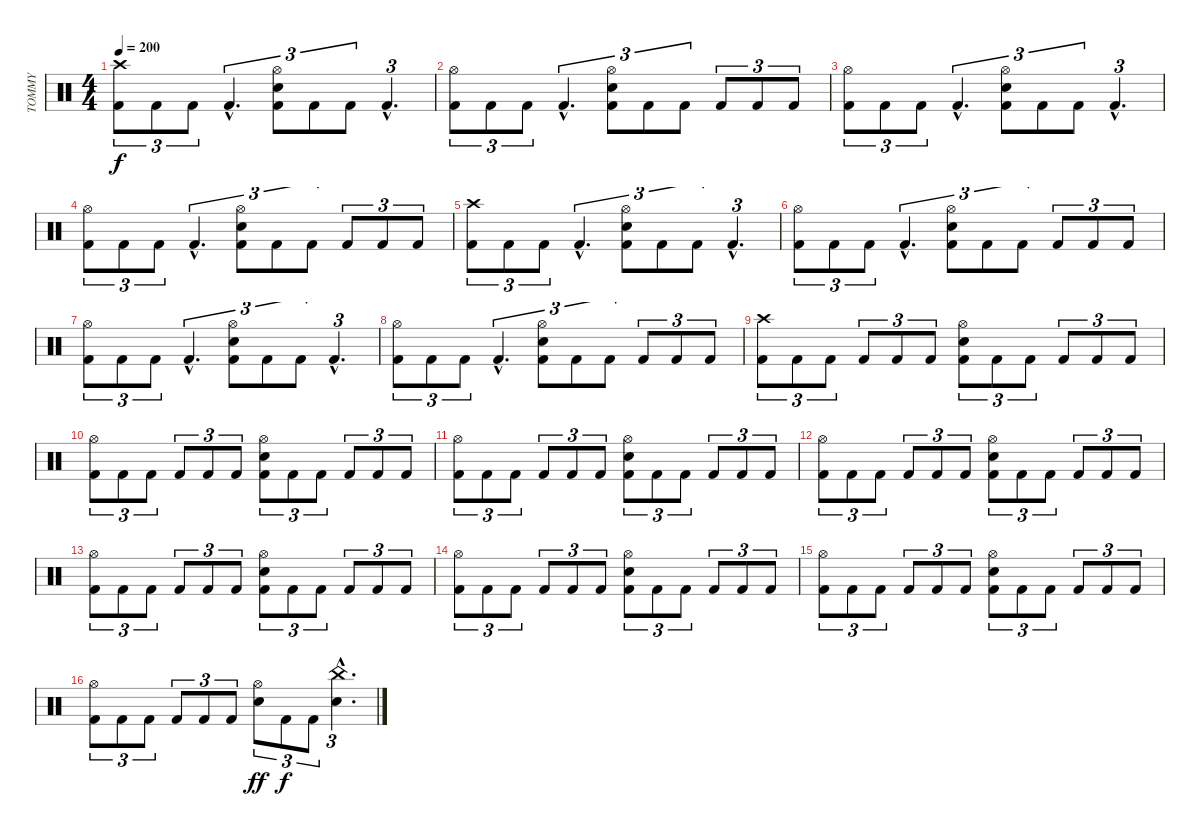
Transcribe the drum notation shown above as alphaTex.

\track ("TOMMY" "TOMMY") {instrument percussion}
\staff {score}
\articulation defaults
\ts (4 4)
\tempo 200
\clef neutral
\ks c
("Kick (hit) 2" "Crash high (hit)").8{tu (3 2) dy f} "Kick (hit) 2".8{tu (3 2)} "Kick (hit) 2".8{tu (3 2)} "Kick (hit) 2"{hac}.4{d tu (3 2)} ("Snare (hit) 2" "Kick (hit) 2" "Hi-Hat (open)").8{tu (3 2)} "Kick (hit) 2".8{tu (3 2)} "Kick (hit) 2".8{tu (3 2)} "Kick (hit) 2"{hac}.4{d tu (3 2)} |
("Kick (hit) 2" "Hi-Hat (open)").8{tu (3 2)} "Kick (hit) 2".8{tu (3 2)} "Kick (hit) 2".8{tu (3 2)} "Kick (hit) 2"{hac}.4{d tu (3 2)} ("Snare (hit) 2" "Kick (hit) 2" "Hi-Hat (open)").8{tu (3 2)} "Kick (hit) 2".8{tu (3 2)} "Kick (hit) 2".8{tu (3 2)} "Kick (hit) 2".8{tu (3 2)} "Kick (hit) 2".8{tu (3 2)} "Kick (hit) 2".8{tu (3 2)} |
("Kick (hit) 2" "Hi-Hat (open)").8{tu (3 2)} "Kick (hit) 2".8{tu (3 2)} "Kick (hit) 2".8{tu (3 2)} "Kick (hit) 2"{hac}.4{d tu (3 2)} ("Snare (hit) 2" "Kick (hit) 2" "Hi-Hat (open)").8{tu (3 2)} "Kick (hit) 2".8{tu (3 2)} "Kick (hit) 2".8{tu (3 2)} "Kick (hit) 2"{hac}.4{d tu (3 2)} |
("Kick (hit) 2" "Hi-Hat (open)").8{tu (3 2)} "Kick (hit) 2".8{tu (3 2)} "Kick (hit) 2".8{tu (3 2)} "Kick (hit) 2"{hac}.4{d tu (3 2)} ("Snare (hit) 2" "Kick (hit) 2" "Hi-Hat (open)").8{tu (3 2)} "Kick (hit) 2".8{tu (3 2)} "Kick (hit) 2".8{tu (3 2)} "Kick (hit) 2".8{tu (3 2)} "Kick (hit) 2".8{tu (3 2)} "Kick (hit) 2".8{tu (3 2)} |
("Kick (hit) 2" "Crash high (hit)").8{tu (3 2)} "Kick (hit) 2".8{tu (3 2)} "Kick (hit) 2".8{tu (3 2)} "Kick (hit) 2"{hac}.4{d tu (3 2)} ("Snare (hit) 2" "Kick (hit) 2" "Hi-Hat (open)").8{tu (3 2)} "Kick (hit) 2".8{tu (3 2)} "Kick (hit) 2".8{tu (3 2)} "Kick (hit) 2"{hac}.4{d tu (3 2)} |
("Kick (hit) 2" "Hi-Hat (open)").8{tu (3 2)} "Kick (hit) 2".8{tu (3 2)} "Kick (hit) 2".8{tu (3 2)} "Kick (hit) 2"{hac}.4{d tu (3 2)} ("Snare (hit) 2" "Kick (hit) 2" "Hi-Hat (open)").8{tu (3 2)} "Kick (hit) 2".8{tu (3 2)} "Kick (hit) 2".8{tu (3 2)} "Kick (hit) 2".8{tu (3 2)} "Kick (hit) 2".8{tu (3 2)} "Kick (hit) 2".8{tu (3 2)} |
("Kick (hit) 2" "Hi-Hat (open)").8{tu (3 2)} "Kick (hit) 2".8{tu (3 2)} "Kick (hit) 2".8{tu (3 2)} "Kick (hit) 2"{hac}.4{d tu (3 2)} ("Snare (hit) 2" "Kick (hit) 2" "Hi-Hat (open)").8{tu (3 2)} "Kick (hit) 2".8{tu (3 2)} "Kick (hit) 2".8{tu (3 2)} "Kick (hit) 2"{hac}.4{d tu (3 2)} |
("Kick (hit) 2" "Hi-Hat (open)").8{tu (3 2)} "Kick (hit) 2".8{tu (3 2)} "Kick (hit) 2".8{tu (3 2)} "Kick (hit) 2"{hac}.4{d tu (3 2)} ("Snare (hit) 2" "Kick (hit) 2" "Hi-Hat (open)").8{tu (3 2)} "Kick (hit) 2".8{tu (3 2)} "Kick (hit) 2".8{tu (3 2)} "Kick (hit) 2".8{tu (3 2)} "Kick (hit) 2".8{tu (3 2)} "Kick (hit) 2".8{tu (3 2)} |
("Kick (hit) 2" "Crash high (hit)").8{tu (3 2)} "Kick (hit) 2".8{tu (3 2)} "Kick (hit) 2".8{tu (3 2)} "Kick (hit) 2".8{tu (3 2)} "Kick (hit) 2".8{tu (3 2)} "Kick (hit) 2".8{tu (3 2)} ("Snare (hit) 2" "Kick (hit) 2" "Hi-Hat (open)").8{tu (3 2)} "Kick (hit) 2".8{tu (3 2)} "Kick (hit) 2".8{tu (3 2)} "Kick (hit) 2".8{tu (3 2)} "Kick (hit) 2".8{tu (3 2)} "Kick (hit) 2".8{tu (3 2)} |
("Kick (hit) 2" "Hi-Hat (open)").8{tu (3 2)} "Kick (hit) 2".8{tu (3 2)} "Kick (hit) 2".8{tu (3 2)} "Kick (hit) 2".8{tu (3 2)} "Kick (hit) 2".8{tu (3 2)} "Kick (hit) 2".8{tu (3 2)} ("Snare (hit) 2" "Kick (hit) 2" "Hi-Hat (open)").8{tu (3 2)} "Kick (hit) 2".8{tu (3 2)} "Kick (hit) 2".8{tu (3 2)} "Kick (hit) 2".8{tu (3 2)} "Kick (hit) 2".8{tu (3 2)} "Kick (hit) 2".8{tu (3 2)} |
("Kick (hit) 2" "Hi-Hat (open)").8{tu (3 2)} "Kick (hit) 2".8{tu (3 2)} "Kick (hit) 2".8{tu (3 2)} "Kick (hit) 2".8{tu (3 2)} "Kick (hit) 2".8{tu (3 2)} "Kick (hit) 2".8{tu (3 2)} ("Snare (hit) 2" "Kick (hit) 2" "Hi-Hat (open)").8{tu (3 2)} "Kick (hit) 2".8{tu (3 2)} "Kick (hit) 2".8{tu (3 2)} "Kick (hit) 2".8{tu (3 2)} "Kick (hit) 2".8{tu (3 2)} "Kick (hit) 2".8{tu (3 2)} |
("Kick (hit) 2" "Hi-Hat (open)").8{tu (3 2)} "Kick (hit) 2".8{tu (3 2)} "Kick (hit) 2".8{tu (3 2)} "Kick (hit) 2".8{tu (3 2)} "Kick (hit) 2".8{tu (3 2)} "Kick (hit) 2".8{tu (3 2)} ("Snare (hit) 2" "Kick (hit) 2" "Hi-Hat (open)").8{tu (3 2)} "Kick (hit) 2".8{tu (3 2)} "Kick (hit) 2".8{tu (3 2)} "Kick (hit) 2".8{tu (3 2)} "Kick (hit) 2".8{tu (3 2)} "Kick (hit) 2".8{tu (3 2)} |
("Kick (hit) 2" "Hi-Hat (open)").8{tu (3 2)} "Kick (hit) 2".8{tu (3 2)} "Kick (hit) 2".8{tu (3 2)} "Kick (hit) 2".8{tu (3 2)} "Kick (hit) 2".8{tu (3 2)} "Kick (hit) 2".8{tu (3 2)} ("Snare (hit) 2" "Kick (hit) 2" "Hi-Hat (open)").8{tu (3 2)} "Kick (hit) 2".8{tu (3 2)} "Kick (hit) 2".8{tu (3 2)} "Kick (hit) 2".8{tu (3 2)} "Kick (hit) 2".8{tu (3 2)} "Kick (hit) 2".8{tu (3 2)} |
("Kick (hit) 2" "Hi-Hat (open)").8{tu (3 2)} "Kick (hit) 2".8{tu (3 2)} "Kick (hit) 2".8{tu (3 2)} "Kick (hit) 2".8{tu (3 2)} "Kick (hit) 2".8{tu (3 2)} "Kick (hit) 2".8{tu (3 2)} ("Snare (hit) 2" "Kick (hit) 2" "Hi-Hat (open)").8{tu (3 2)} "Kick (hit) 2".8{tu (3 2)} "Kick (hit) 2".8{tu (3 2)} "Kick (hit) 2".8{tu (3 2)} "Kick (hit) 2".8{tu (3 2)} "Kick (hit) 2".8{tu (3 2)} |
("Kick (hit) 2" "Hi-Hat (open)").8{tu (3 2)} "Kick (hit) 2".8{tu (3 2)} "Kick (hit) 2".8{tu (3 2)} "Kick (hit) 2".8{tu (3 2)} "Kick (hit) 2".8{tu (3 2)} "Kick (hit) 2".8{tu (3 2)} ("Snare (hit) 2" "Kick (hit) 2" "Hi-Hat (open)").8{tu (3 2)} "Kick (hit) 2".8{tu (3 2)} "Kick (hit) 2".8{tu (3 2)} "Kick (hit) 2".8{tu (3 2)} "Kick (hit) 2".8{tu (3 2)} "Kick (hit) 2".8{tu (3 2)} |
("Kick (hit) 2" "Hi-Hat (open)").8{tu (3 2)} "Kick (hit) 2".8{tu (3 2)} "Kick (hit) 2".8{tu (3 2)} "Kick (hit) 2".8{tu (3 2)} "Kick (hit) 2".8{tu (3 2)} "Kick (hit) 2".8{tu (3 2)} ("Snare (hit) 2" "Hi-Hat (open)").8{tu (3 2) dy ff} "Kick (hit) 2".8{tu (3 2) dy f} "Kick (hit) 2".8{tu (3 2)} ("Snare (hit) 2"{hac} "China (hit)"{hac}).4{d tu (3 2)}
